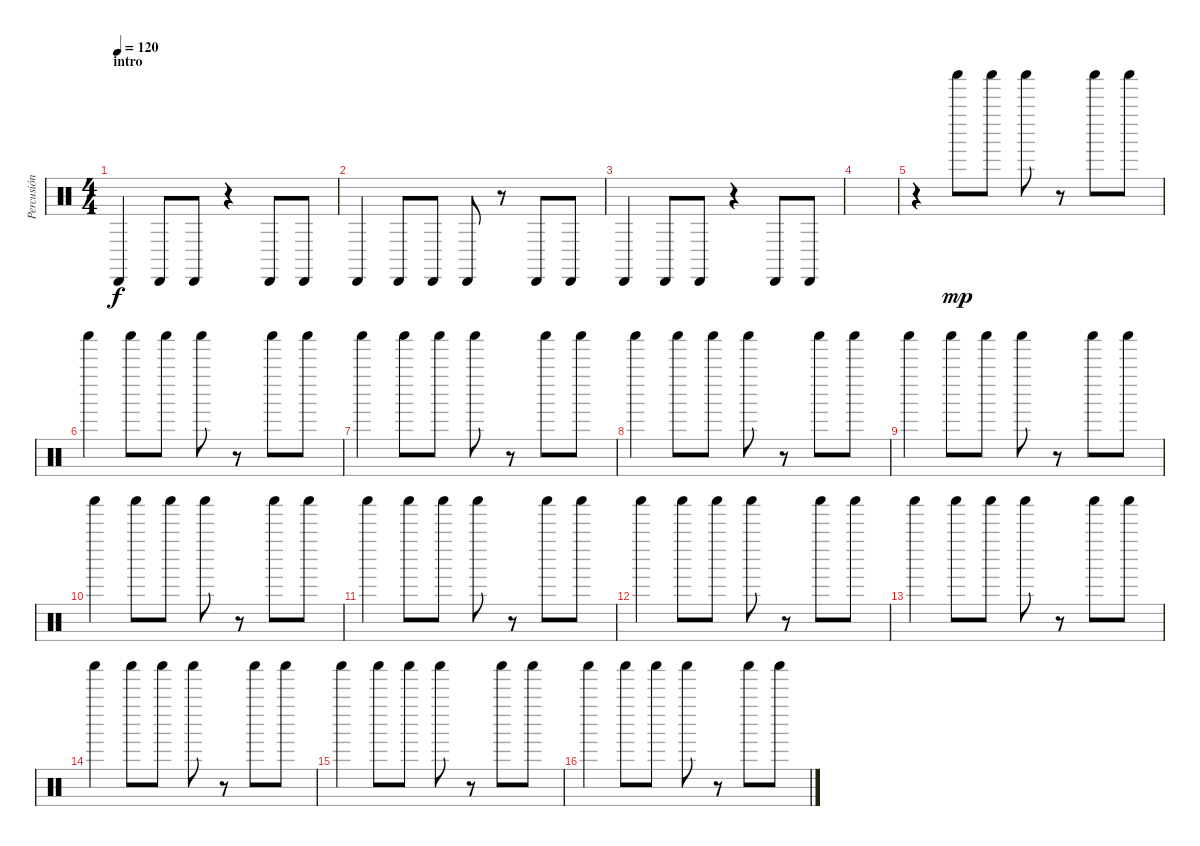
\track ("Percusión" "Percusión") {instrument percussion}
\staff {score}
\articulation defaults
\ts (4 4)
\section ("" "intro")
\tempo 120
\clef neutral
\ks c "Cabasa (hit)".4{dy f} "Cabasa (hit)".8 "Cabasa (hit)".8
r.4 "Cabasa (hit)".8 "Cabasa (hit)".8 |
"Cabasa (hit)".4 "Cabasa (hit)".8 "Cabasa (hit)".8 "Cabasa (hit)".8 r.8 "Cabasa (hit)".8 "Cabasa (hit)".8 |
"Cabasa (hit)".4 "Cabasa (hit)".8 "Cabasa (hit)".8 r.4 "Cabasa (hit)".8 "Cabasa (hit)".8 |
|
r.4 "Shaker (hit)".8{dy mp} "Shaker (hit)".8 "Shaker (hit)".8 r.8 "Shaker (hit)".8 "Shaker (hit)".8 |
"Shaker (hit)".4 "Shaker (hit)".8 "Shaker (hit)".8 "Shaker (hit)".8 r.8 "Shaker (hit)".8 "Shaker (hit)".8 |
"Shaker (hit)".4 "Shaker (hit)".8 "Shaker (hit)".8 "Shaker (hit)".8 r.8 "Shaker (hit)".8 "Shaker (hit)".8 |
"Shaker (hit)".4 "Shaker (hit)".8 "Shaker (hit)".8 "Shaker (hit)".8 r.8 "Shaker (hit)".8 "Shaker (hit)".8 |
"Shaker (hit)".4 "Shaker (hit)".8 "Shaker (hit)".8 "Shaker (hit)".8 r.8 "Shaker (hit)".8 "Shaker (hit)".8 |
"Shaker (hit)".4 "Shaker (hit)".8 "Shaker (hit)".8 "Shaker (hit)".8 r.8 "Shaker (hit)".8 "Shaker (hit)".8 |
"Shaker (hit)".4 "Shaker (hit)".8 "Shaker (hit)".8 "Shaker (hit)".8 r.8 "Shaker (hit)".8 "Shaker (hit)".8 |
"Shaker (hit)".4 "Shaker (hit)".8 "Shaker (hit)".8 "Shaker (hit)".8 r.8 "Shaker (hit)".8 "Shaker (hit)".8 |
"Shaker (hit)".4 "Shaker (hit)".8 "Shaker (hit)".8 "Shaker (hit)".8 r.8 "Shaker (hit)".8 "Shaker (hit)".8 |
"Shaker (hit)".4 "Shaker (hit)".8 "Shaker (hit)".8 "Shaker (hit)".8 r.8 "Shaker (hit)".8 "Shaker (hit)".8 |
"Shaker (hit)".4 "Shaker (hit)".8 "Shaker (hit)".8 "Shaker (hit)".8 r.8 "Shaker (hit)".8 "Shaker (hit)".8 |
"Shaker (hit)".4 "Shaker (hit)".8 "Shaker (hit)".8 "Shaker (hit)".8 r.8 "Shaker (hit)".8 "Shaker (hit)".8
